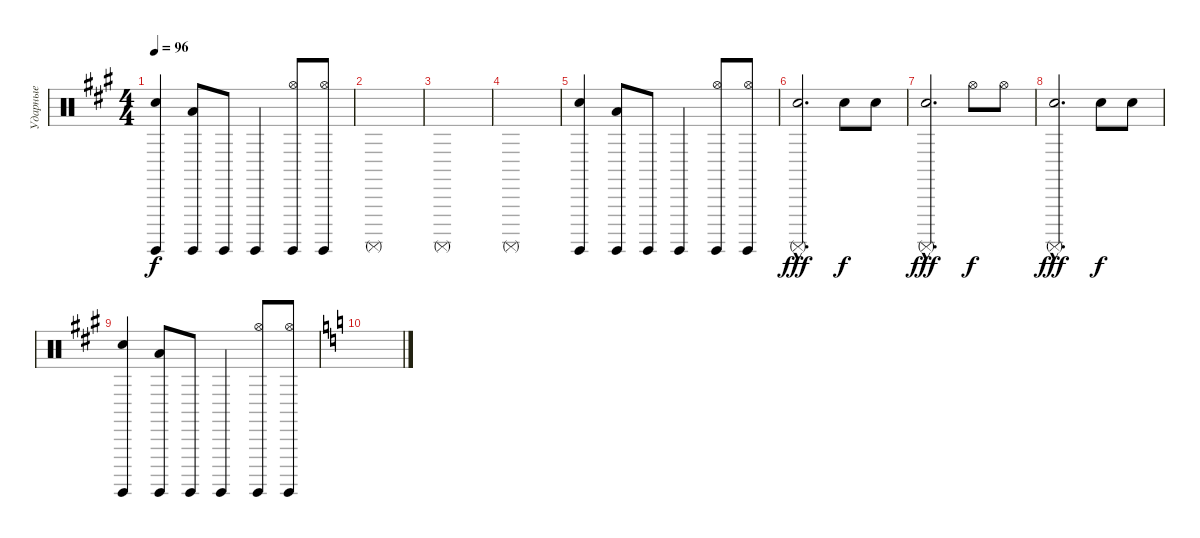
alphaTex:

\track ("Ударные" "Ударные") {solo instrument percussion}
\staff {score}
\articulation defaults
\ts (4 4)
\tempo 96
\clef neutral
\ks f#minor
("Snare (hit) 2" "Surdo (hit)").4{dy f} ("Low Floor Tom (hit)" "Surdo (hit)").8 "Surdo (hit)".8 "Surdo (hit)".4 ("Surdo (hit)" "Hi-Hat (open)").8 ("Hi-Hat (open)" "Surdo (hit)").8 |
"Surdo (mute)".1 |
"Surdo (mute)".1 |
"Surdo (mute)".1 |
("Snare (hit) 2" "Surdo (hit)").4 ("Low Floor Tom (hit)" "Surdo (hit)").8 "Surdo (hit)".8 "Surdo (hit)".4 ("Surdo (hit)" "Hi-Hat (open)").8 ("Hi-Hat (open)" "Surdo (hit)").8 |
("Snare (hit) 2" "Surdo (mute)"{hac}).2{d dy fff} "Electric Snare (hit)".8{dy f} "Electric Snare (hit)".8 |
("Snare (hit) 2" "Surdo (mute)"{hac}).2{d dy fff} "Hi-Hat (open)".8{dy f} "Hi-Hat (open)".8 |
("Snare (hit) 2" "Surdo (mute)"{hac}).2{d dy fff} "Electric Snare (hit)".8{dy f} "Electric Snare (hit)".8 |
("Snare (hit) 2" "Surdo (hit)").4 ("Low Floor Tom (hit)" "Surdo (hit)").8 "Surdo (hit)".8 "Surdo (hit)".4 ("Surdo (hit)" "Hi-Hat (open)").8 ("Hi-Hat (open)" "Surdo (hit)").8 |
\ks c
